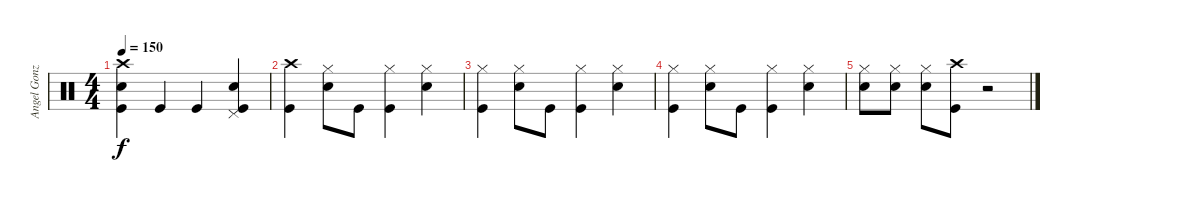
\track ("Angel González - Batería" "Angel Gonz") {instrument percussion}
\staff {score}
\articulation defaults
\ts (4 4)
\tempo 150
\clef neutral
\ks c
("Crash high (hit)" "Electric Snare (hit)" "Kick (hit)").4{dy f} "Kick (hit)".4 "Kick (hit)".4 ("Electric Snare (hit)" "Pedal Hi-Hat (hit)" "Kick (hit)").4 |
("Crash high (hit)" "Kick (hit)").4 ("Hi-Hat (closed)" "Electric Snare (hit)").8 "Kick (hit)".8 ("Hi-Hat (closed)" "Kick (hit)").4 ("Hi-Hat (closed)" "Electric Snare (hit)").4 |
("Hi-Hat (closed)" "Kick (hit)").4 ("Hi-Hat (closed)" "Electric Snare (hit)").8 "Kick (hit)".8 ("Hi-Hat (closed)" "Kick (hit)").4 ("Hi-Hat (closed)" "Electric Snare (hit)").4 |
("Hi-Hat (closed)" "Kick (hit)").4 ("Hi-Hat (closed)" "Electric Snare (hit)").8 "Kick (hit)".8 ("Hi-Hat (closed)" "Kick (hit)").4 ("Hi-Hat (closed)" "Electric Snare (hit)").4 |
("Hi-Hat (closed)" "Electric Snare (hit)").8 ("Hi-Hat (closed)" "Electric Snare (hit)").8 ("Hi-Hat (closed)" "Electric Snare (hit)").8 ("Crash high (hit)" "Kick (hit)").8 r.2
